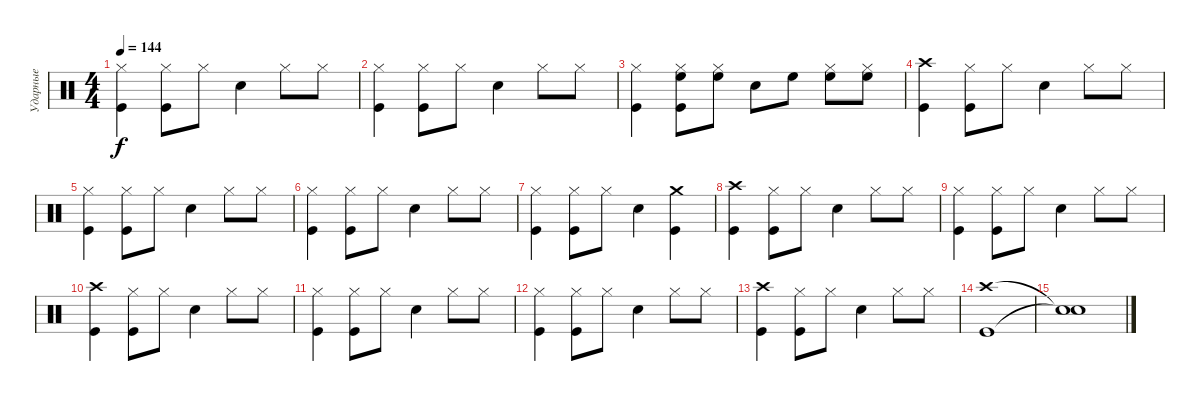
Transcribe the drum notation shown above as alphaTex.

\track ("Ударные" "Ударные") {instrument percussion}
\staff {score}
\articulation defaults
\ts (4 4)
\tempo 144
\clef neutral
\ks c
("Hi-Hat (closed)" "Kick (hit)").4{dy f} ("Hi-Hat (closed)" "Kick (hit)").8 "Hi-Hat (closed)".8 "Snare (hit) 2".4 "Hi-Hat (closed)".8 "Hi-Hat (closed)".8 |
("Hi-Hat (closed)" "Kick (hit)").4 ("Hi-Hat (closed)" "Kick (hit)").8 "Hi-Hat (closed)".8 "Snare (hit) 2".4 "Hi-Hat (closed)".8 "Hi-Hat (closed)".8 |
("Hi-Hat (closed)" "Kick (hit)").4 ("Hi-Hat (closed)" "High Floor Tom (hit)" "Kick (hit)").8 ("Hi-Hat (closed)" "High Floor Tom (hit)").8 "Snare (hit) 2".8 "High Floor Tom (hit)".8 ("Hi-Hat (closed)" "High Floor Tom (hit)").8 ("Hi-Hat (closed)" "High Floor Tom (hit)").8 |
("Crash high (hit)" "Kick (hit)").4 ("Hi-Hat (closed)" "Kick (hit)").8 "Hi-Hat (closed)".8 "Snare (hit) 2".4 "Hi-Hat (closed)".8 "Hi-Hat (closed)".8 |
("Hi-Hat (closed)" "Kick (hit)").4 ("Hi-Hat (closed)" "Kick (hit)").8 "Hi-Hat (closed)".8 "Snare (hit) 2".4 "Hi-Hat (closed)".8 "Hi-Hat (closed)".8 |
("Hi-Hat (closed)" "Kick (hit)").4 ("Hi-Hat (closed)" "Kick (hit)").8 "Hi-Hat (closed)".8 "Snare (hit) 2".4 "Hi-Hat (closed)".8 "Hi-Hat (closed)".8 |
("Hi-Hat (closed)" "Kick (hit)").4 ("Hi-Hat (closed)" "Kick (hit)").8 "Hi-Hat (closed)".8 "Snare (hit) 2".4 ("Crash medium (hit)" "Kick (hit)").4 |
("Crash high (hit)" "Kick (hit)").4 ("Hi-Hat (closed)" "Kick (hit)").8 "Hi-Hat (closed)".8 "Snare (hit) 2".4 "Hi-Hat (closed)".8 "Hi-Hat (closed)".8 |
("Hi-Hat (closed)" "Kick (hit)").4 ("Hi-Hat (closed)" "Kick (hit)").8 "Hi-Hat (closed)".8 "Snare (hit) 2".4 "Hi-Hat (closed)".8 "Hi-Hat (closed)".8 |
("Crash high (hit)" "Kick (hit)").4 ("Hi-Hat (closed)" "Kick (hit)").8 "Hi-Hat (closed)".8 "Snare (hit) 2".4 "Hi-Hat (closed)".8 "Hi-Hat (closed)".8 |
("Hi-Hat (closed)" "Kick (hit)").4 ("Hi-Hat (closed)" "Kick (hit)").8 "Hi-Hat (closed)".8 "Snare (hit) 2".4 "Hi-Hat (closed)".8 "Hi-Hat (closed)".8 |
("Hi-Hat (closed)" "Kick (hit)").4 ("Hi-Hat (closed)" "Kick (hit)").8 "Hi-Hat (closed)".8 "Snare (hit) 2".4 "Hi-Hat (closed)".8 "Hi-Hat (closed)".8 |
("Crash high (hit)" "Kick (hit)").4 ("Hi-Hat (closed)" "Kick (hit)").8 "Hi-Hat (closed)".8 "Snare (hit) 2".4 "Hi-Hat (closed)".8 "Hi-Hat (closed)".8 |
("Crash high (hit)" "Kick (hit)").1 |
("Snare (hit)"{t} "Snare (hit)"{t}).1
